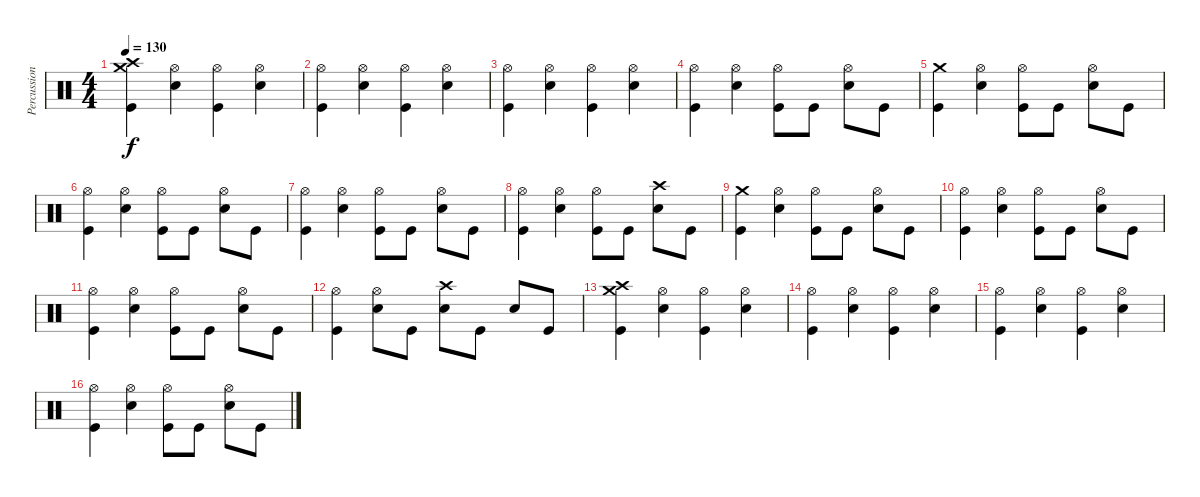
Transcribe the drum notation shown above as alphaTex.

\track ("Percussions" "Percussion") {instrument percussion}
\staff {score}
\articulation defaults
\ts (4 4)
\tempo 130
\clef neutral
\ks c
("Crash medium (hit)" "Crash high (hit)" "Kick (hit)").4{dy f} ("Hi-Hat (open)" "Electric Snare (hit)").4 ("Hi-Hat (open)" "Kick (hit)").4 ("Hi-Hat (open)" "Electric Snare (hit)").4 |
("Hi-Hat (open)" "Kick (hit)").4 ("Hi-Hat (open)" "Electric Snare (hit)").4 ("Hi-Hat (open)" "Kick (hit)").4 ("Hi-Hat (open)" "Electric Snare (hit)").4 |
("Hi-Hat (open)" "Kick (hit)").4 ("Hi-Hat (open)" "Electric Snare (hit)").4 ("Hi-Hat (open)" "Kick (hit)").4 ("Hi-Hat (open)" "Electric Snare (hit)").4 |
("Hi-Hat (open)" "Kick (hit)").4 ("Hi-Hat (open)" "Electric Snare (hit)").4 ("Hi-Hat (open)" "Kick (hit)").8 "Kick (hit)".8 ("Hi-Hat (open)" "Electric Snare (hit)").8 "Kick (hit)".8 |
("Crash medium (hit)" "Kick (hit)").4 ("Hi-Hat (open)" "Electric Snare (hit)").4 ("Hi-Hat (open)" "Kick (hit)").8 "Kick (hit)".8 ("Hi-Hat (open)" "Electric Snare (hit)").8 "Kick (hit)".8 |
("Hi-Hat (open)" "Kick (hit)").4 ("Hi-Hat (open)" "Electric Snare (hit)").4 ("Hi-Hat (open)" "Kick (hit)").8 "Kick (hit)".8 ("Hi-Hat (open)" "Electric Snare (hit)").8 "Kick (hit)".8 |
("Hi-Hat (open)" "Kick (hit)").4 ("Hi-Hat (open)" "Electric Snare (hit)").4 ("Hi-Hat (open)" "Kick (hit)").8 "Kick (hit)".8 ("Hi-Hat (open)" "Electric Snare (hit)").8 "Kick (hit)".8 |
("Hi-Hat (open)" "Kick (hit)").4 ("Hi-Hat (open)" "Electric Snare (hit)").4 ("Hi-Hat (open)" "Kick (hit)").8 "Kick (hit)".8 ("Crash high (hit)" "Electric Snare (hit)").8 "Kick (hit)".8 |
("Crash medium (hit)" "Kick (hit)").4 ("Hi-Hat (open)" "Electric Snare (hit)").4 ("Hi-Hat (open)" "Kick (hit)").8 "Kick (hit)".8 ("Hi-Hat (open)" "Electric Snare (hit)").8 "Kick (hit)".8 |
("Hi-Hat (open)" "Kick (hit)").4 ("Hi-Hat (open)" "Electric Snare (hit)").4 ("Hi-Hat (open)" "Kick (hit)").8 "Kick (hit)".8 ("Hi-Hat (open)" "Electric Snare (hit)").8 "Kick (hit)".8 |
("Hi-Hat (open)" "Kick (hit)").4 ("Hi-Hat (open)" "Electric Snare (hit)").4 ("Hi-Hat (open)" "Kick (hit)").8 "Kick (hit)".8 ("Hi-Hat (open)" "Electric Snare (hit)").8 "Kick (hit)".8 |
("Hi-Hat (open)" "Kick (hit)").4 ("Hi-Hat (open)" "Electric Snare (hit)").8 "Kick (hit)".8 ("Crash high (hit)" "Electric Snare (hit)").8 "Kick (hit)".8 "Electric Snare (hit)".8 "Kick (hit)".8 |
("Crash medium (hit)" "Crash high (hit)" "Kick (hit)").4 ("Hi-Hat (open)" "Electric Snare (hit)").4 ("Hi-Hat (open)" "Kick (hit)").4 ("Hi-Hat (open)" "Electric Snare (hit)").4 |
("Hi-Hat (open)" "Kick (hit)").4 ("Hi-Hat (open)" "Electric Snare (hit)").4 ("Hi-Hat (open)" "Kick (hit)").4 ("Hi-Hat (open)" "Electric Snare (hit)").4 |
("Hi-Hat (open)" "Kick (hit)").4 ("Hi-Hat (open)" "Electric Snare (hit)").4 ("Hi-Hat (open)" "Kick (hit)").4 ("Hi-Hat (open)" "Electric Snare (hit)").4 |
("Hi-Hat (open)" "Kick (hit)").4 ("Hi-Hat (open)" "Electric Snare (hit)").4 ("Hi-Hat (open)" "Kick (hit)").8 "Kick (hit)".8 ("Hi-Hat (open)" "Electric Snare (hit)").8 "Kick (hit)".8
